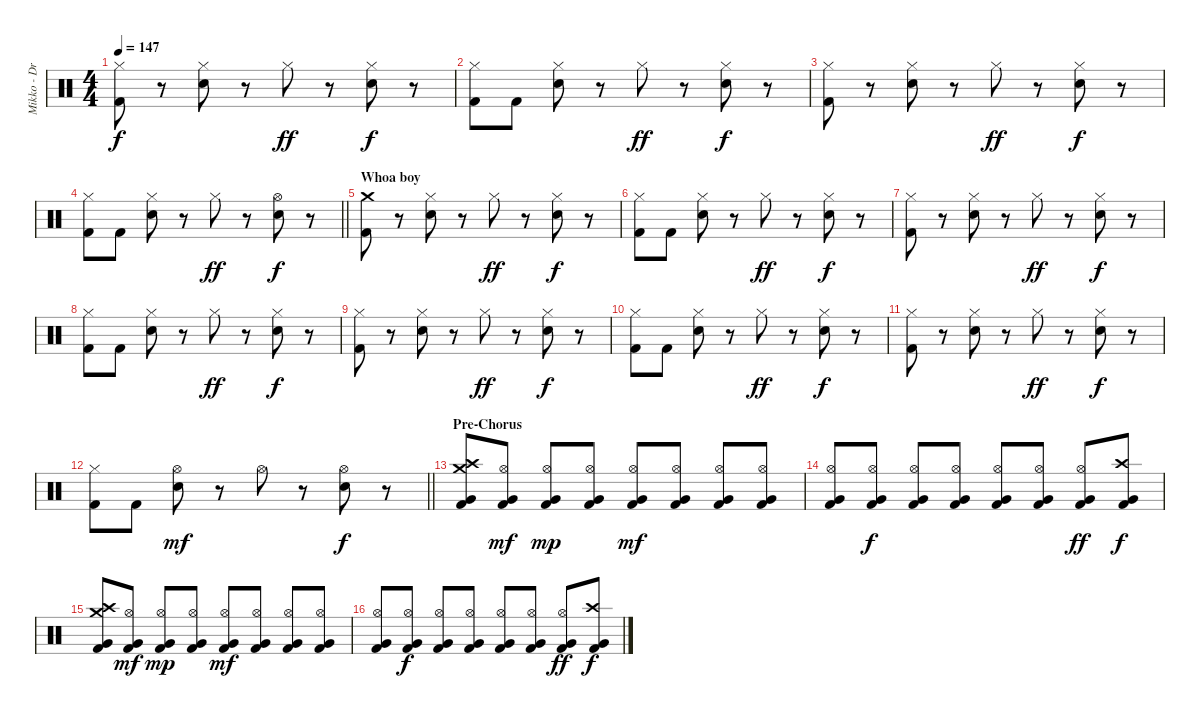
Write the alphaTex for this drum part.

\track ("Mikko - Drums" "Mikko - Dr") {instrument percussion}
\staff {score}
\articulation defaults
\ts (4 4)
\tempo 147
\clef neutral
\ks c
("Hi-Hat (closed)" "Kick (hit) 2").8{dy f} r.8 ("Hi-Hat (closed)" "Snare (hit) 2").8 r.8 "Hi-Hat (closed)".8{dy ff} r.8 ("Hi-Hat (closed)" "Snare (hit) 2").8{dy f} r.8 |
("Hi-Hat (closed)" "Kick (hit) 2").8 "Kick (hit) 2".8 ("Hi-Hat (closed)" "Snare (hit) 2").8 r.8 "Hi-Hat (closed)".8{dy ff} r.8 ("Hi-Hat (closed)" "Snare (hit) 2").8{dy f} r.8 |
("Hi-Hat (closed)" "Kick (hit) 2").8 r.8 ("Hi-Hat (closed)" "Snare (hit) 2").8 r.8 "Hi-Hat (closed)".8{dy ff} r.8 ("Hi-Hat (closed)" "Snare (hit) 2").8{dy f} r.8 |
\barLineRight lightlight
("Hi-Hat (closed)" "Kick (hit) 2").8 "Kick (hit) 2".8 ("Hi-Hat (closed)" "Snare (hit) 2").8 r.8 "Hi-Hat (closed)".8{dy ff} r.8 ("Hi-Hat (open)" "Snare (hit) 2").8{dy f} r.8 |
\section ("" "Whoa boy")
("Crash medium (hit)" "Kick (hit) 2").8 r.8 ("Hi-Hat (closed)" "Snare (hit) 2").8 r.8 "Hi-Hat (closed)".8{dy ff} r.8 ("Hi-Hat (closed)" "Snare (hit) 2").8{dy f} r.8 |
("Hi-Hat (closed)" "Kick (hit) 2").8 "Kick (hit) 2".8 ("Hi-Hat (closed)" "Snare (hit) 2").8 r.8 "Hi-Hat (closed)".8{dy ff} r.8 ("Hi-Hat (closed)" "Snare (hit) 2").8{dy f} r.8 |
("Hi-Hat (closed)" "Kick (hit) 2").8 r.8 ("Hi-Hat (closed)" "Snare (hit) 2").8 r.8 "Hi-Hat (closed)".8{dy ff} r.8 ("Hi-Hat (closed)" "Snare (hit) 2").8{dy f} r.8 |
("Hi-Hat (closed)" "Kick (hit) 2").8 "Kick (hit) 2".8 ("Hi-Hat (closed)" "Snare (hit) 2").8 r.8 "Hi-Hat (closed)".8{dy ff} r.8 ("Hi-Hat (closed)" "Snare (hit) 2").8{dy f} r.8 |
("Hi-Hat (closed)" "Kick (hit) 2").8 r.8 ("Hi-Hat (closed)" "Snare (hit) 2").8 r.8 "Hi-Hat (closed)".8{dy ff} r.8 ("Hi-Hat (closed)" "Snare (hit) 2").8{dy f} r.8 |
("Hi-Hat (closed)" "Kick (hit) 2").8 "Kick (hit) 2".8 ("Hi-Hat (closed)" "Snare (hit) 2").8 r.8 "Hi-Hat (closed)".8{dy ff} r.8 ("Hi-Hat (closed)" "Snare (hit) 2").8{dy f} r.8 |
("Hi-Hat (closed)" "Kick (hit) 2").8 r.8 ("Hi-Hat (closed)" "Snare (hit) 2").8 r.8 "Hi-Hat (closed)".8{dy ff} r.8 ("Hi-Hat (closed)" "Snare (hit) 2").8{dy f} r.8 |
\barLineRight lightlight
("Hi-Hat (closed)" "Kick (hit) 2").8 "Kick (hit) 2".8 ("Hi-Hat (open)" "Snare (hit) 2").8{dy mf} r.8 "Hi-Hat (open)".8 r.8 ("Hi-Hat (open)" "Snare (hit) 2").8{dy f} r.8 |
\section ("" "Pre-Chorus")
("Crash medium (hit)" "Crash high (hit)" "Very Low Tom (hit)" "Kick (hit) 2").8 ("Hi-Hat (open)" "Very Low Tom (hit)" "Kick (hit) 2").8{dy mf} ("Hi-Hat (open)" "Very Low Tom (hit)" "Kick (hit) 2").8{dy mp} ("Hi-Hat (open)" "Very Low Tom (hit)" "Kick (hit) 2").8 ("Hi-Hat (open)" "Very Low Tom (hit)" "Kick (hit) 2").8{dy mf} ("Hi-Hat (open)" "Very Low Tom (hit)" "Kick (hit) 2").8 ("Hi-Hat (open)" "Very Low Tom (hit)" "Kick (hit) 2").8 ("Hi-Hat (open)" "Very Low Tom (hit)" "Kick (hit) 2").8 |
("Hi-Hat (open)" "Very Low Tom (hit)" "Kick (hit) 2").8 ("Hi-Hat (open)" "Very Low Tom (hit)" "Kick (hit) 2").8{dy f} ("Hi-Hat (open)" "Very Low Tom (hit)" "Kick (hit) 2").8 ("Hi-Hat (open)" "Very Low Tom (hit)" "Kick (hit) 2").8 ("Hi-Hat (open)" "Very Low Tom (hit)" "Kick (hit) 2").8 ("Hi-Hat (open)" "Very Low Tom (hit)" "Kick (hit) 2").8 ("Hi-Hat (open)" "Very Low Tom (hit)" "Kick (hit) 2").8{dy ff} ("Crash high (hit)" "Very Low Tom (hit)" "Kick (hit) 2").8{dy f} |
("Crash medium (hit)" "Crash high (hit)" "Very Low Tom (hit)" "Kick (hit) 2").8 ("Hi-Hat (open)" "Very Low Tom (hit)" "Kick (hit) 2").8{dy mf} ("Hi-Hat (open)" "Very Low Tom (hit)" "Kick (hit) 2").8{dy mp} ("Hi-Hat (open)" "Very Low Tom (hit)" "Kick (hit) 2").8 ("Hi-Hat (open)" "Very Low Tom (hit)" "Kick (hit) 2").8{dy mf} ("Hi-Hat (open)" "Very Low Tom (hit)" "Kick (hit) 2").8 ("Hi-Hat (open)" "Very Low Tom (hit)" "Kick (hit) 2").8 ("Hi-Hat (open)" "Very Low Tom (hit)" "Kick (hit) 2").8 |
("Hi-Hat (open)" "Very Low Tom (hit)" "Kick (hit) 2").8 ("Hi-Hat (open)" "Very Low Tom (hit)" "Kick (hit) 2").8{dy f} ("Hi-Hat (open)" "Very Low Tom (hit)" "Kick (hit) 2").8 ("Hi-Hat (open)" "Very Low Tom (hit)" "Kick (hit) 2").8 ("Hi-Hat (open)" "Very Low Tom (hit)" "Kick (hit) 2").8 ("Hi-Hat (open)" "Very Low Tom (hit)" "Kick (hit) 2").8 ("Hi-Hat (open)" "Very Low Tom (hit)" "Kick (hit) 2").8{dy ff} ("Crash high (hit)" "Very Low Tom (hit)" "Kick (hit) 2").8{dy f}
